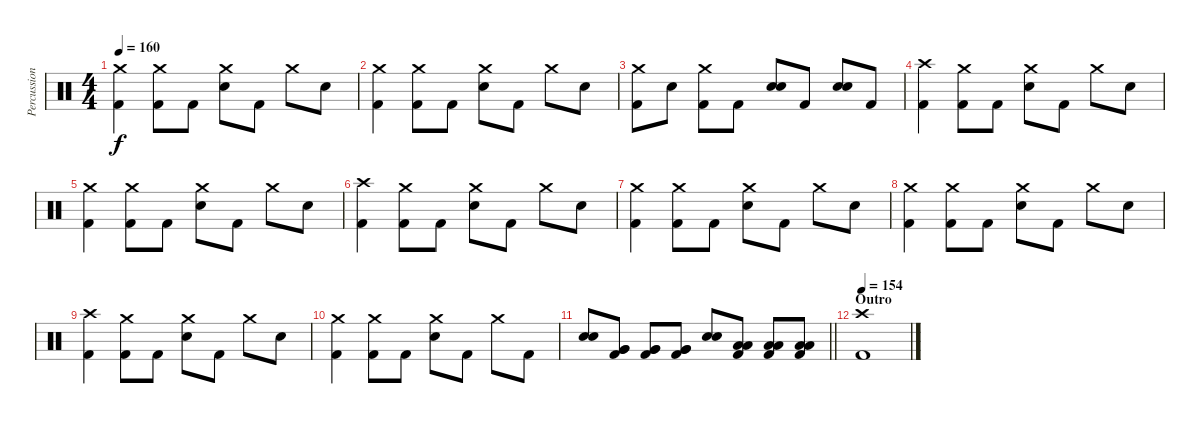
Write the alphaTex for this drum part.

\track ("Percussion" "Percussion") {instrument percussion}
\staff {score}
\articulation defaults
\ts (4 4)
\tempo 160
\clef neutral
\ks c
("Crash medium (hit)" "Kick (hit) 2").4{dy f} ("Crash medium (hit)" "Kick (hit) 2").8 "Kick (hit) 2".8 ("Crash medium (hit)" "Electric Snare (hit)").8 "Kick (hit) 2".8 "Crash medium (hit)".8 "Electric Snare (hit)".8 |
("Crash medium (hit)" "Kick (hit) 2").4 ("Crash medium (hit)" "Kick (hit) 2").8 "Kick (hit) 2".8 ("Crash medium (hit)" "Electric Snare (hit)").8 "Kick (hit) 2".8 "Crash medium (hit)".8 "Electric Snare (hit)".8 |
("Crash medium (hit)" "Kick (hit) 2").8 "Electric Snare (hit)".8 ("Crash medium (hit)" "Kick (hit) 2").8 "Kick (hit) 2".8 ("Electric Snare (hit)" "Electric Snare (hit)").8 "Kick (hit) 2".8 ("Electric Snare (hit)" "Electric Snare (hit)").8 "Kick (hit) 2".8 |
("Crash high (hit)" "Kick (hit) 2").4 ("Crash medium (hit)" "Kick (hit) 2").8 "Kick (hit) 2".8 ("Crash medium (hit)" "Electric Snare (hit)").8 "Kick (hit) 2".8 "Crash medium (hit)".8 "Electric Snare (hit)".8 |
("Crash medium (hit)" "Kick (hit) 2").4 ("Crash medium (hit)" "Kick (hit) 2").8 "Kick (hit) 2".8 ("Crash medium (hit)" "Electric Snare (hit)").8 "Kick (hit) 2".8 "Crash medium (hit)".8 "Electric Snare (hit)".8 |
("Crash high (hit)" "Kick (hit) 2").4 ("Crash medium (hit)" "Kick (hit) 2").8 "Kick (hit) 2".8 ("Crash medium (hit)" "Electric Snare (hit)").8 "Kick (hit) 2".8 "Crash medium (hit)".8 "Electric Snare (hit)".8 |
("Crash medium (hit)" "Kick (hit) 2").4 ("Crash medium (hit)" "Kick (hit) 2").8 "Kick (hit) 2".8 ("Crash medium (hit)" "Electric Snare (hit)").8 "Kick (hit) 2".8 "Crash medium (hit)".8 "Electric Snare (hit)".8 |
("Crash medium (hit)" "Kick (hit) 2").4 ("Crash medium (hit)" "Kick (hit) 2").8 "Kick (hit) 2".8 ("Crash medium (hit)" "Electric Snare (hit)").8 "Kick (hit) 2".8 "Crash medium (hit)".8 "Electric Snare (hit)".8 |
("Crash high (hit)" "Kick (hit) 2").4 ("Crash medium (hit)" "Kick (hit) 2").8 "Kick (hit) 2".8 ("Crash medium (hit)" "Electric Snare (hit)").8 "Kick (hit) 2".8 "Crash medium (hit)".8 "Electric Snare (hit)".8 |
("Crash medium (hit)" "Kick (hit) 2").4 ("Crash medium (hit)" "Kick (hit) 2").8 "Kick (hit) 2".8 ("Crash medium (hit)" "Electric Snare (hit)").8 "Kick (hit) 2".8 "Crash medium (hit)".8 "Kick (hit) 2".8 |
\barLineRight lightlight
("Electric Snare (hit)" "Electric Snare (hit)").8 ("Very Low Tom (hit)" "Very Low Tom (hit)" "Kick (hit) 2").8 ("Very Low Tom (hit)" "Very Low Tom (hit)" "Kick (hit) 2").8 ("Very Low Tom (hit)" "Very Low Tom (hit)" "Kick (hit) 2").8 ("Electric Snare (hit)" "Electric Snare (hit)").8 ("Low Floor Tom (hit)" "Low Floor Tom (hit)" "Kick (hit) 2").8 ("Low Floor Tom (hit)" "Low Floor Tom (hit)" "Kick (hit) 2").8 ("Low Floor Tom (hit)" "Low Floor Tom (hit)" "Kick (hit) 2").8 |
\section ("" "Outro")
\tempo 154
("Crash high (hit)" "Kick (hit) 2").1
